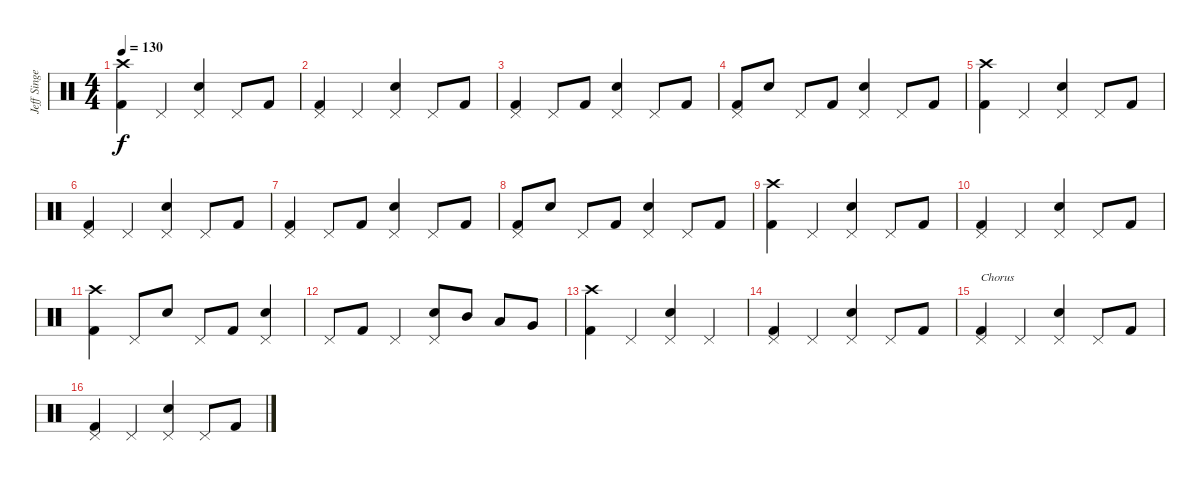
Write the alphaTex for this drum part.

\track ("Jeff Singer" "Jeff Singe") {instrument percussion}
\staff {score}
\articulation defaults
\ts (4 4)
\tempo 130
\clef neutral
\ks c
("Crash high (hit)" "Kick (hit) 2").4{dy f} "Pedal Hi-Hat (hit)".4 ("Pedal Hi-Hat (hit)" "Snare (hit) 2").4 "Pedal Hi-Hat (hit)".8 "Kick (hit) 2".8 |
("Pedal Hi-Hat (hit)" "Kick (hit) 2").4 "Pedal Hi-Hat (hit)".4 ("Pedal Hi-Hat (hit)" "Snare (hit) 2").4 "Pedal Hi-Hat (hit)".8 "Kick (hit) 2".8 |
("Pedal Hi-Hat (hit)" "Kick (hit) 2").4 "Pedal Hi-Hat (hit)".8 "Kick (hit) 2".8 ("Pedal Hi-Hat (hit)" "Snare (hit) 2").4 "Pedal Hi-Hat (hit)".8 "Kick (hit) 2".8 |
("Pedal Hi-Hat (hit)" "Kick (hit) 2").8 "Snare (hit) 2".8 "Pedal Hi-Hat (hit)".8 "Kick (hit) 2".8 ("Pedal Hi-Hat (hit)" "Snare (hit) 2").4 "Pedal Hi-Hat (hit)".8 "Kick (hit) 2".8 |
("Crash high (hit)" "Kick (hit) 2").4 "Pedal Hi-Hat (hit)".4 ("Pedal Hi-Hat (hit)" "Snare (hit) 2").4 "Pedal Hi-Hat (hit)".8 "Kick (hit) 2".8 |
("Pedal Hi-Hat (hit)" "Kick (hit) 2").4 "Pedal Hi-Hat (hit)".4 ("Pedal Hi-Hat (hit)" "Snare (hit) 2").4 "Pedal Hi-Hat (hit)".8 "Kick (hit) 2".8 |
("Pedal Hi-Hat (hit)" "Kick (hit) 2").4 "Pedal Hi-Hat (hit)".8 "Kick (hit) 2".8 ("Pedal Hi-Hat (hit)" "Snare (hit) 2").4 "Pedal Hi-Hat (hit)".8 "Kick (hit) 2".8 |
("Pedal Hi-Hat (hit)" "Kick (hit) 2").8 "Snare (hit) 2".8 "Pedal Hi-Hat (hit)".8 "Kick (hit) 2".8 ("Pedal Hi-Hat (hit)" "Snare (hit) 2").4 "Pedal Hi-Hat (hit)".8 "Kick (hit) 2".8 |
("Crash high (hit)" "Kick (hit) 2").4 "Pedal Hi-Hat (hit)".4 ("Pedal Hi-Hat (hit)" "Snare (hit) 2").4 "Pedal Hi-Hat (hit)".8 "Kick (hit) 2".8 |
("Pedal Hi-Hat (hit)" "Kick (hit) 2").4 "Pedal Hi-Hat (hit)".4 ("Pedal Hi-Hat (hit)" "Snare (hit) 2").4 "Pedal Hi-Hat (hit)".8 "Kick (hit) 2".8 |
("Crash high (hit)" "Kick (hit) 2").4 "Pedal Hi-Hat (hit)".8 "Snare (hit) 2".8 "Pedal Hi-Hat (hit)".8 "Kick (hit) 2".8 ("Pedal Hi-Hat (hit)" "Snare (hit) 2").4 |
"Pedal Hi-Hat (hit)".8 "Kick (hit) 2".8 "Pedal Hi-Hat (hit)".4 ("Pedal Hi-Hat (hit)" "Snare (hit) 2").8 "Mid Tom (hit)".8 "Low Tom (hit)".8 "Very Low Tom (hit)".8 |
("Crash high (hit)" "Kick (hit) 2").4 "Pedal Hi-Hat (hit)".4 ("Pedal Hi-Hat (hit)" "Snare (hit) 2").4 "Pedal Hi-Hat (hit)".4 |
("Pedal Hi-Hat (hit)" "Kick (hit) 2").4 "Pedal Hi-Hat (hit)".4 ("Pedal Hi-Hat (hit)" "Snare (hit) 2").4 "Pedal Hi-Hat (hit)".8 "Kick (hit) 2".8 |
("Pedal Hi-Hat (hit)" "Kick (hit) 2").4{txt "Chorus"} "Pedal Hi-Hat (hit)".4 ("Pedal Hi-Hat (hit)" "Snare (hit) 2").4 "Pedal Hi-Hat (hit)".8 "Kick (hit) 2".8 |
("Pedal Hi-Hat (hit)" "Kick (hit) 2").4 "Pedal Hi-Hat (hit)".4 ("Pedal Hi-Hat (hit)" "Snare (hit) 2").4 "Pedal Hi-Hat (hit)".8 "Kick (hit) 2".8
